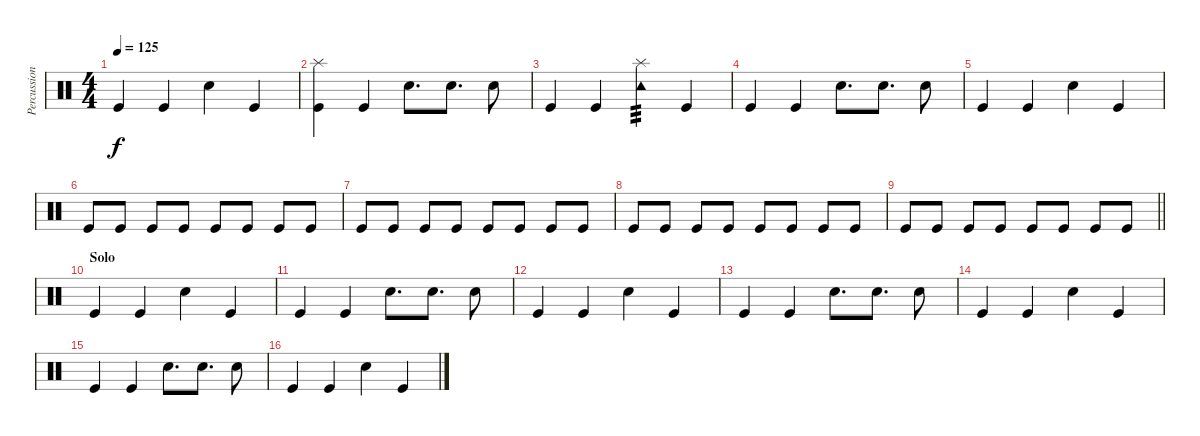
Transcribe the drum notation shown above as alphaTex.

\track ("Percussion" "Percussion") {instrument percussion}
\staff {score}
\articulation defaults
\ts (4 4)
\tempo 125
\clef neutral
\ks c "Kick (hit)".4{dy f} "Kick (hit)".4 "Snare (hit) 2".4 "Kick (hit)".4
|
("Splash (hit)" "Kick (hit)").4 "Kick (hit)".4 "Snare (hit) 2".8{d} "Snare (hit) 2".8{d} "Snare (hit) 2".8 |
"Kick (hit)".4 "Kick (hit)".4 ("Tambourine (hit)" "Splash (hit)").4{tp 3} "Kick (hit)".4 |
"Kick (hit)".4 "Kick (hit)".4 "Snare (hit) 2".8{d} "Snare (hit) 2".8{d} "Snare (hit) 2".8 |
"Kick (hit)".4 "Kick (hit)".4 "Snare (hit) 2".4 "Kick (hit)".4 |
"Kick (hit)".8 "Kick (hit)".8 "Kick (hit)".8 "Kick (hit)".8 "Kick (hit)".8 "Kick (hit)".8 "Kick (hit)".8 "Kick (hit)".8 |
"Kick (hit)".8 "Kick (hit)".8 "Kick (hit)".8 "Kick (hit)".8 "Kick (hit)".8 "Kick (hit)".8 "Kick (hit)".8 "Kick (hit)".8 |
"Kick (hit)".8 "Kick (hit)".8 "Kick (hit)".8 "Kick (hit)".8 "Kick (hit)".8 "Kick (hit)".8 "Kick (hit)".8 "Kick (hit)".8 |
\barLineRight lightlight "Kick (hit)".8 "Kick (hit)".8 "Kick (hit)".8 "Kick (hit)".8 "Kick (hit)".8 "Kick (hit)".8 "Kick (hit)".8 "Kick (hit)".8
|
\section ("" "Solo")
"Kick (hit)".4 "Kick (hit)".4 "Snare (hit) 2".4 "Kick (hit)".4 |
"Kick (hit)".4 "Kick (hit)".4 "Snare (hit) 2".8{d} "Snare (hit) 2".8{d} "Snare (hit) 2".8 |
"Kick (hit)".4 "Kick (hit)".4 "Snare (hit) 2".4 "Kick (hit)".4 |
"Kick (hit)".4 "Kick (hit)".4 "Snare (hit) 2".8{d} "Snare (hit) 2".8{d} "Snare (hit) 2".8 |
"Kick (hit)".4 "Kick (hit)".4 "Snare (hit) 2".4 "Kick (hit)".4 |
"Kick (hit)".4 "Kick (hit)".4 "Snare (hit) 2".8{d} "Snare (hit) 2".8{d} "Snare (hit) 2".8 |
"Kick (hit)".4 "Kick (hit)".4 "Snare (hit) 2".4 "Kick (hit)".4
